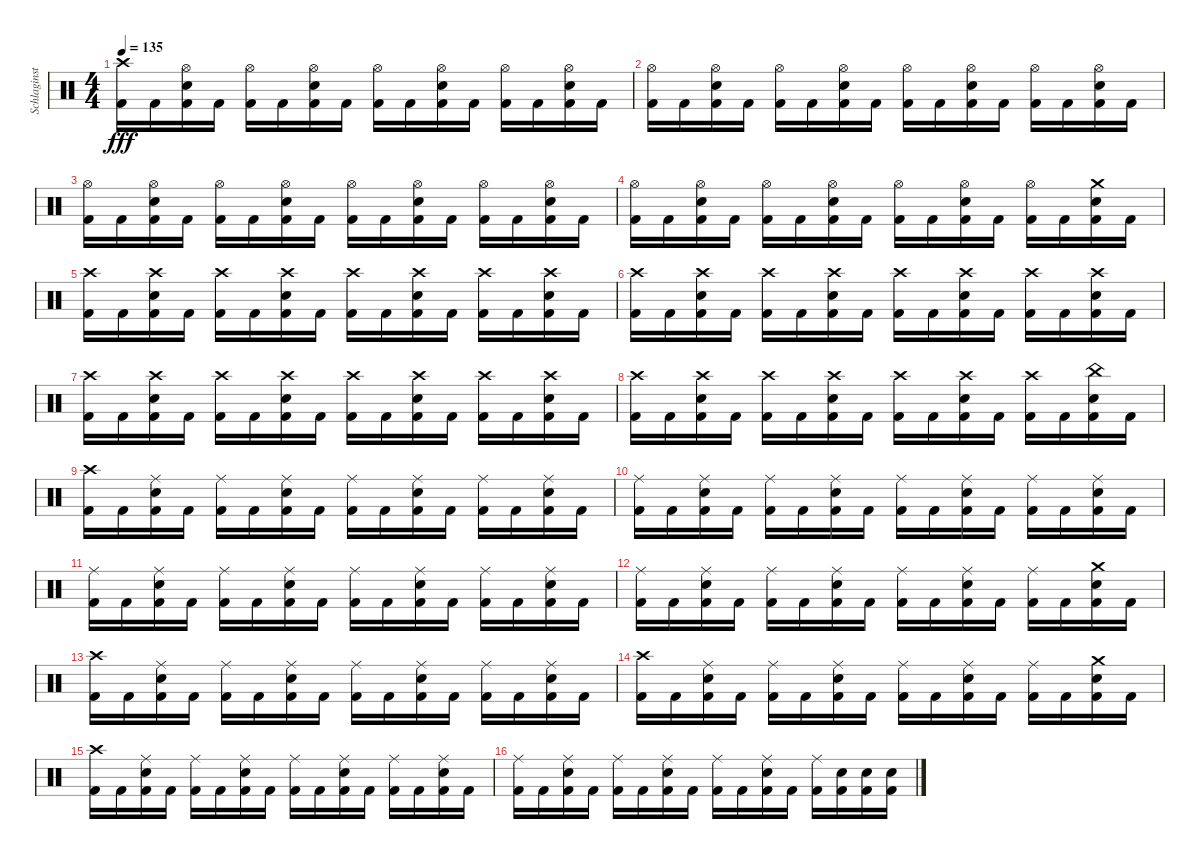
\track ("Schlaginstrumente - Auswahl" "Schlaginst") {instrument percussion}
\staff {score}
\articulation defaults
\ts (4 4)
\tempo 135
\clef neutral
\ks c
("Crash high (hit)" "Kick (hit) 2").16{dy fff} "Kick (hit) 2".16 ("Hi-Hat (open)" "Snare (hit) 2" "Kick (hit) 2").16 "Kick (hit) 2".16 ("Hi-Hat (open)" "Kick (hit) 2").16 "Kick (hit) 2".16 ("Hi-Hat (open)" "Snare (hit) 2" "Kick (hit) 2").16 "Kick (hit) 2".16 ("Hi-Hat (open)" "Kick (hit) 2").16 "Kick (hit) 2".16 ("Hi-Hat (open)" "Snare (hit) 2" "Kick (hit) 2").16 "Kick (hit) 2".16 ("Hi-Hat (open)" "Kick (hit) 2").16 "Kick (hit) 2".16 ("Hi-Hat (open)" "Snare (hit) 2" "Kick (hit) 2").16 "Kick (hit) 2".16 |
("Hi-Hat (open)" "Kick (hit) 2").16 "Kick (hit) 2".16 ("Hi-Hat (open)" "Snare (hit) 2" "Kick (hit) 2").16 "Kick (hit) 2".16 ("Hi-Hat (open)" "Kick (hit) 2").16 "Kick (hit) 2".16 ("Hi-Hat (open)" "Snare (hit) 2" "Kick (hit) 2").16 "Kick (hit) 2".16 ("Hi-Hat (open)" "Kick (hit) 2").16 "Kick (hit) 2".16 ("Hi-Hat (open)" "Snare (hit) 2" "Kick (hit) 2").16 "Kick (hit) 2".16 ("Hi-Hat (open)" "Kick (hit) 2").16 "Kick (hit) 2".16 ("Hi-Hat (open)" "Snare (hit) 2" "Kick (hit) 2").16 "Kick (hit) 2".16 |
("Hi-Hat (open)" "Kick (hit) 2").16 "Kick (hit) 2".16 ("Hi-Hat (open)" "Snare (hit) 2" "Kick (hit) 2").16 "Kick (hit) 2".16 ("Hi-Hat (open)" "Kick (hit) 2").16 "Kick (hit) 2".16 ("Hi-Hat (open)" "Snare (hit) 2" "Kick (hit) 2").16 "Kick (hit) 2".16 ("Hi-Hat (open)" "Kick (hit) 2").16 "Kick (hit) 2".16 ("Hi-Hat (open)" "Snare (hit) 2" "Kick (hit) 2").16 "Kick (hit) 2".16 ("Hi-Hat (open)" "Kick (hit) 2").16 "Kick (hit) 2".16 ("Hi-Hat (open)" "Snare (hit) 2" "Kick (hit) 2").16 "Kick (hit) 2".16 |
("Hi-Hat (open)" "Kick (hit) 2").16 "Kick (hit) 2".16 ("Hi-Hat (open)" "Snare (hit) 2" "Kick (hit) 2").16 "Kick (hit) 2".16 ("Hi-Hat (open)" "Kick (hit) 2").16 "Kick (hit) 2".16 ("Hi-Hat (open)" "Snare (hit) 2" "Kick (hit) 2").16 "Kick (hit) 2".16 ("Hi-Hat (open)" "Kick (hit) 2").16 "Kick (hit) 2".16 ("Hi-Hat (open)" "Snare (hit) 2" "Kick (hit) 2").16 "Kick (hit) 2".16 ("Hi-Hat (open)" "Kick (hit) 2").16 "Kick (hit) 2".16 ("Crash medium (hit)" "Snare (hit) 2" "Kick (hit) 2").16 "Kick (hit) 2".16 |
("Crash high (hit)" "Kick (hit) 2").16 "Kick (hit) 2".16 ("Crash high (hit)" "Snare (hit) 2" "Kick (hit) 2").16 "Kick (hit) 2".16 ("Crash high (hit)" "Kick (hit) 2").16 "Kick (hit) 2".16 ("Crash high (hit)" "Snare (hit) 2" "Kick (hit) 2").16 "Kick (hit) 2".16 ("Crash high (hit)" "Kick (hit) 2").16 "Kick (hit) 2".16 ("Crash high (hit)" "Snare (hit) 2" "Kick (hit) 2").16 "Kick (hit) 2".16 ("Crash high (hit)" "Kick (hit) 2").16 "Kick (hit) 2".16 ("Crash high (hit)" "Snare (hit) 2" "Kick (hit) 2").16 "Kick (hit) 2".16 |
("Crash high (hit)" "Kick (hit) 2").16 "Kick (hit) 2".16 ("Crash high (hit)" "Snare (hit) 2" "Kick (hit) 2").16 "Kick (hit) 2".16 ("Crash high (hit)" "Kick (hit) 2").16 "Kick (hit) 2".16 ("Crash high (hit)" "Snare (hit) 2" "Kick (hit) 2").16 "Kick (hit) 2".16 ("Crash high (hit)" "Kick (hit) 2").16 "Kick (hit) 2".16 ("Crash high (hit)" "Snare (hit) 2" "Kick (hit) 2").16 "Kick (hit) 2".16 ("Crash high (hit)" "Kick (hit) 2").16 "Kick (hit) 2".16 ("Crash high (hit)" "Snare (hit) 2" "Kick (hit) 2").16 "Kick (hit) 2".16 |
("Crash high (hit)" "Kick (hit) 2").16 "Kick (hit) 2".16 ("Crash high (hit)" "Snare (hit) 2" "Kick (hit) 2").16 "Kick (hit) 2".16 ("Crash high (hit)" "Kick (hit) 2").16 "Kick (hit) 2".16 ("Crash high (hit)" "Snare (hit) 2" "Kick (hit) 2").16 "Kick (hit) 2".16 ("Crash high (hit)" "Kick (hit) 2").16 "Kick (hit) 2".16 ("Crash high (hit)" "Snare (hit) 2" "Kick (hit) 2").16 "Kick (hit) 2".16 ("Crash high (hit)" "Kick (hit) 2").16 "Kick (hit) 2".16 ("Crash high (hit)" "Snare (hit) 2" "Kick (hit) 2").16 "Kick (hit) 2".16 |
("Crash high (hit)" "Kick (hit) 2").16 "Kick (hit) 2".16 ("Crash high (hit)" "Snare (hit) 2" "Kick (hit) 2").16 "Kick (hit) 2".16 ("Crash high (hit)" "Kick (hit) 2").16 "Kick (hit) 2".16 ("Crash high (hit)" "Snare (hit) 2" "Kick (hit) 2").16 "Kick (hit) 2".16 ("Crash high (hit)" "Kick (hit) 2").16 "Kick (hit) 2".16 ("Crash high (hit)" "Snare (hit) 2" "Kick (hit) 2").16 "Kick (hit) 2".16 ("Crash high (hit)" "Kick (hit) 2").16 "Kick (hit) 2".16 ("China (hit)" "Snare (hit) 2" "Kick (hit) 2").16 "Kick (hit) 2".16 |
("Crash high (hit)" "Kick (hit) 2").16 "Kick (hit) 2".16 ("Ride (middle)" "Snare (hit) 2" "Kick (hit) 2").16 "Kick (hit) 2".16 ("Ride (middle)" "Kick (hit) 2").16 "Kick (hit) 2".16 ("Ride (middle)" "Snare (hit) 2" "Kick (hit) 2").16 "Kick (hit) 2".16 ("Ride (middle)" "Kick (hit) 2").16 "Kick (hit) 2".16 ("Ride (middle)" "Snare (hit) 2" "Kick (hit) 2").16 "Kick (hit) 2".16 ("Ride (middle)" "Kick (hit) 2").16 "Kick (hit) 2".16 ("Ride (middle)" "Snare (hit) 2" "Kick (hit) 2").16 "Kick (hit) 2".16 |
("Ride (middle)" "Kick (hit) 2").16 "Kick (hit) 2".16 ("Ride (middle)" "Snare (hit) 2" "Kick (hit) 2").16 "Kick (hit) 2".16 ("Ride (middle)" "Kick (hit) 2").16 "Kick (hit) 2".16 ("Ride (middle)" "Snare (hit) 2" "Kick (hit) 2").16 "Kick (hit) 2".16 ("Ride (middle)" "Kick (hit) 2").16 "Kick (hit) 2".16 ("Ride (middle)" "Snare (hit) 2" "Kick (hit) 2").16 "Kick (hit) 2".16 ("Ride (middle)" "Kick (hit) 2").16 "Kick (hit) 2".16 ("Ride (middle)" "Snare (hit) 2" "Kick (hit) 2").16 "Kick (hit) 2".16 |
("Ride (middle)" "Kick (hit) 2").16 "Kick (hit) 2".16 ("Ride (middle)" "Snare (hit) 2" "Kick (hit) 2").16 "Kick (hit) 2".16 ("Ride (middle)" "Kick (hit) 2").16 "Kick (hit) 2".16 ("Ride (middle)" "Snare (hit) 2" "Kick (hit) 2").16 "Kick (hit) 2".16 ("Ride (middle)" "Kick (hit) 2").16 "Kick (hit) 2".16 ("Ride (middle)" "Snare (hit) 2" "Kick (hit) 2").16 "Kick (hit) 2".16 ("Ride (middle)" "Kick (hit) 2").16 "Kick (hit) 2".16 ("Ride (middle)" "Snare (hit) 2" "Kick (hit) 2").16 "Kick (hit) 2".16 |
("Ride (middle)" "Kick (hit) 2").16 "Kick (hit) 2".16 ("Ride (middle)" "Snare (hit) 2" "Kick (hit) 2").16 "Kick (hit) 2".16 ("Ride (middle)" "Kick (hit) 2").16 "Kick (hit) 2".16 ("Ride (middle)" "Snare (hit) 2" "Kick (hit) 2").16 "Kick (hit) 2".16 ("Ride (middle)" "Kick (hit) 2").16 "Kick (hit) 2".16 ("Ride (middle)" "Snare (hit) 2" "Kick (hit) 2").16 "Kick (hit) 2".16 ("Ride (middle)" "Kick (hit) 2").16 "Kick (hit) 2".16 ("Crash medium (hit)" "Snare (hit) 2" "Kick (hit) 2").16 "Kick (hit) 2".16 |
("Crash high (hit)" "Kick (hit) 2").16 "Kick (hit) 2".16 ("Ride (middle)" "Snare (hit) 2" "Kick (hit) 2").16 "Kick (hit) 2".16 ("Ride (middle)" "Kick (hit) 2").16 "Kick (hit) 2".16 ("Ride (middle)" "Snare (hit) 2" "Kick (hit) 2").16 "Kick (hit) 2".16 ("Ride (middle)" "Kick (hit) 2").16 "Kick (hit) 2".16 ("Ride (middle)" "Snare (hit) 2" "Kick (hit) 2").16 "Kick (hit) 2".16 ("Ride (middle)" "Kick (hit) 2").16 "Kick (hit) 2".16 ("Ride (middle)" "Snare (hit) 2" "Kick (hit) 2").16 "Kick (hit) 2".16 |
("Crash high (hit)" "Kick (hit) 2").16 "Kick (hit) 2".16 ("Ride (middle)" "Snare (hit) 2" "Kick (hit) 2").16 "Kick (hit) 2".16 ("Ride (middle)" "Kick (hit) 2").16 "Kick (hit) 2".16 ("Ride (middle)" "Snare (hit) 2" "Kick (hit) 2").16 "Kick (hit) 2".16 ("Ride (middle)" "Kick (hit) 2").16 "Kick (hit) 2".16 ("Ride (middle)" "Snare (hit) 2" "Kick (hit) 2").16 "Kick (hit) 2".16 ("Ride (middle)" "Kick (hit) 2").16 "Kick (hit) 2".16 ("Crash medium (hit)" "Snare (hit) 2" "Kick (hit) 2").16 "Kick (hit) 2".16 |
("Crash high (hit)" "Kick (hit) 2").16 "Kick (hit) 2".16 ("Ride (middle)" "Snare (hit) 2" "Kick (hit) 2").16 "Kick (hit) 2".16 ("Ride (middle)" "Kick (hit) 2").16 "Kick (hit) 2".16 ("Ride (middle)" "Snare (hit) 2" "Kick (hit) 2").16 "Kick (hit) 2".16 ("Ride (middle)" "Kick (hit) 2").16 "Kick (hit) 2".16 ("Ride (middle)" "Snare (hit) 2" "Kick (hit) 2").16 "Kick (hit) 2".16 ("Ride (middle)" "Kick (hit) 2").16 "Kick (hit) 2".16 ("Ride (middle)" "Snare (hit) 2" "Kick (hit) 2").16 "Kick (hit) 2".16 |
("Ride (middle)" "Kick (hit) 2").16 "Kick (hit) 2".16 ("Ride (middle)" "Snare (hit) 2" "Kick (hit) 2").16 "Kick (hit) 2".16 ("Ride (middle)" "Kick (hit) 2").16 "Kick (hit) 2".16 ("Ride (middle)" "Snare (hit) 2" "Kick (hit) 2").16 "Kick (hit) 2".16 ("Ride (middle)" "Kick (hit) 2").16 "Kick (hit) 2".16 ("Ride (middle)" "Snare (hit) 2" "Kick (hit) 2").16 "Kick (hit) 2".16 ("Ride (middle)" "Kick (hit) 2").16 ("Snare (hit) 2" "Kick (hit) 2").16 ("Snare (hit) 2" "Kick (hit) 2").16 ("Snare (hit) 2" "Kick (hit) 2").16
